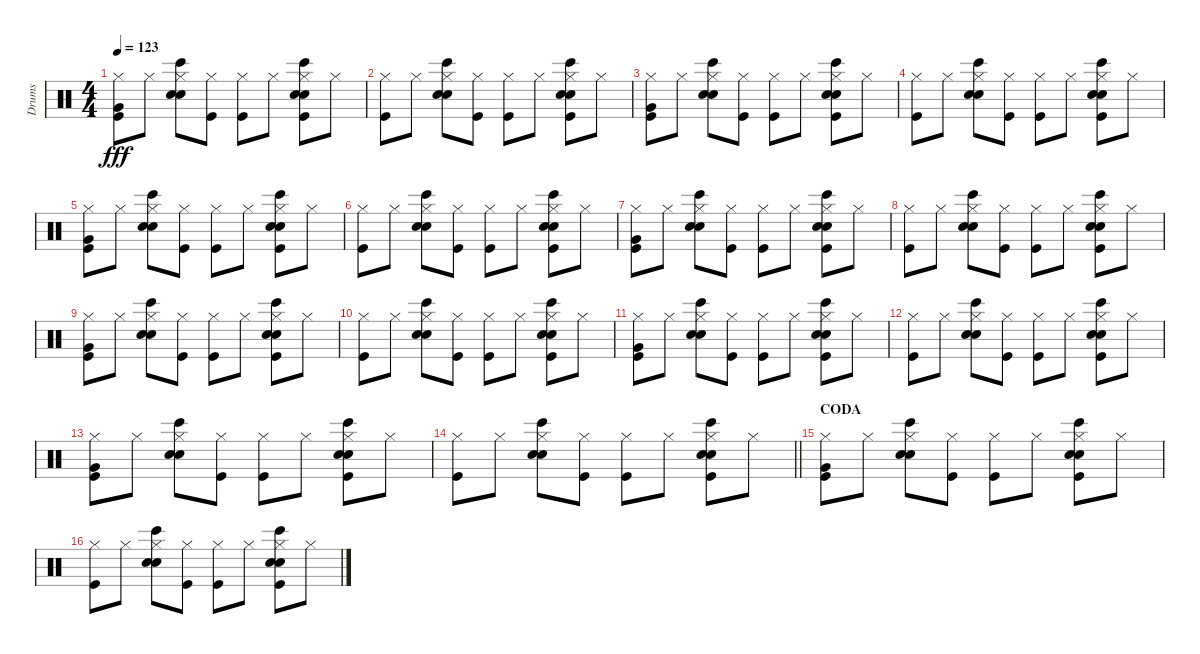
\track ("Drums" "Drums") {instrument percussion}
\staff {score}
\articulation defaults
\ts (4 4)
\tempo 123
\clef neutral
\ks c
("Kick (hit)" "Hi-Hat (closed)" "Very Low Tom (hit)").8{dy fff} "Hi-Hat (closed)".8 ("Hi-Hat (closed)" "Bongo High (hit)" "Hand Clap (hit)" "Electric Snare (hit)").8 ("Kick (hit)" "Hi-Hat (closed)").8 ("Hi-Hat (closed)" "Kick (hit)").8 "Hi-Hat (closed)".8 ("Hi-Hat (closed)" "Kick (hit)" "Electric Snare (hit)" "Hand Clap (hit)" "Bongo High (hit)").8 "Hi-Hat (closed)".8 |
("Hi-Hat (closed)" "Kick (hit)").8 "Hi-Hat (closed)".8 ("Hi-Hat (closed)" "Electric Snare (hit)" "Bongo High (hit)" "Hand Clap (hit)").8 ("Hi-Hat (closed)" "Kick (hit)").8 ("Hi-Hat (closed)" "Kick (hit)").8 "Hi-Hat (closed)".8 ("Hi-Hat (closed)" "Kick (hit)" "Electric Snare (hit)" "Bongo High (hit)" "Hand Clap (hit)").8 "Hi-Hat (closed)".8 |
("Kick (hit)" "Hi-Hat (closed)" "Very Low Tom (hit)").8 "Hi-Hat (closed)".8 ("Hi-Hat (closed)" "Bongo High (hit)" "Hand Clap (hit)" "Electric Snare (hit)").8 ("Kick (hit)" "Hi-Hat (closed)").8 ("Hi-Hat (closed)" "Kick (hit)").8 "Hi-Hat (closed)".8 ("Hi-Hat (closed)" "Kick (hit)" "Electric Snare (hit)" "Hand Clap (hit)" "Bongo High (hit)").8 "Hi-Hat (closed)".8 |
("Hi-Hat (closed)" "Kick (hit)").8 "Hi-Hat (closed)".8 ("Hi-Hat (closed)" "Electric Snare (hit)" "Bongo High (hit)" "Hand Clap (hit)").8 ("Hi-Hat (closed)" "Kick (hit)").8 ("Hi-Hat (closed)" "Kick (hit)").8 "Hi-Hat (closed)".8 ("Hi-Hat (closed)" "Kick (hit)" "Electric Snare (hit)" "Bongo High (hit)" "Hand Clap (hit)").8 "Hi-Hat (closed)".8 |
("Kick (hit)" "Hi-Hat (closed)" "Very Low Tom (hit)").8 "Hi-Hat (closed)".8 ("Hi-Hat (closed)" "Bongo High (hit)" "Hand Clap (hit)" "Electric Snare (hit)").8 ("Kick (hit)" "Hi-Hat (closed)").8 ("Hi-Hat (closed)" "Kick (hit)").8 "Hi-Hat (closed)".8 ("Hi-Hat (closed)" "Kick (hit)" "Electric Snare (hit)" "Hand Clap (hit)" "Bongo High (hit)").8 "Hi-Hat (closed)".8 |
("Hi-Hat (closed)" "Kick (hit)").8 "Hi-Hat (closed)".8 ("Hi-Hat (closed)" "Electric Snare (hit)" "Bongo High (hit)" "Hand Clap (hit)").8 ("Hi-Hat (closed)" "Kick (hit)").8 ("Hi-Hat (closed)" "Kick (hit)").8 "Hi-Hat (closed)".8 ("Hi-Hat (closed)" "Kick (hit)" "Electric Snare (hit)" "Bongo High (hit)" "Hand Clap (hit)").8 "Hi-Hat (closed)".8 |
("Kick (hit)" "Hi-Hat (closed)" "Very Low Tom (hit)").8 "Hi-Hat (closed)".8 ("Hi-Hat (closed)" "Bongo High (hit)" "Hand Clap (hit)" "Electric Snare (hit)").8 ("Kick (hit)" "Hi-Hat (closed)").8 ("Hi-Hat (closed)" "Kick (hit)").8 "Hi-Hat (closed)".8 ("Hi-Hat (closed)" "Kick (hit)" "Electric Snare (hit)" "Hand Clap (hit)" "Bongo High (hit)").8 "Hi-Hat (closed)".8 |
("Hi-Hat (closed)" "Kick (hit)").8 "Hi-Hat (closed)".8 ("Hi-Hat (closed)" "Electric Snare (hit)" "Bongo High (hit)" "Hand Clap (hit)").8 ("Hi-Hat (closed)" "Kick (hit)").8 ("Hi-Hat (closed)" "Kick (hit)").8 "Hi-Hat (closed)".8 ("Hi-Hat (closed)" "Kick (hit)" "Electric Snare (hit)" "Bongo High (hit)" "Hand Clap (hit)").8 "Hi-Hat (closed)".8 |
("Kick (hit)" "Hi-Hat (closed)" "Very Low Tom (hit)").8 "Hi-Hat (closed)".8 ("Hi-Hat (closed)" "Bongo High (hit)" "Hand Clap (hit)" "Electric Snare (hit)").8 ("Kick (hit)" "Hi-Hat (closed)").8 ("Hi-Hat (closed)" "Kick (hit)").8 "Hi-Hat (closed)".8 ("Hi-Hat (closed)" "Kick (hit)" "Electric Snare (hit)" "Hand Clap (hit)" "Bongo High (hit)").8 "Hi-Hat (closed)".8 |
("Hi-Hat (closed)" "Kick (hit)").8 "Hi-Hat (closed)".8 ("Hi-Hat (closed)" "Electric Snare (hit)" "Bongo High (hit)" "Hand Clap (hit)").8 ("Hi-Hat (closed)" "Kick (hit)").8 ("Hi-Hat (closed)" "Kick (hit)").8 "Hi-Hat (closed)".8 ("Hi-Hat (closed)" "Kick (hit)" "Electric Snare (hit)" "Bongo High (hit)" "Hand Clap (hit)").8 "Hi-Hat (closed)".8 |
("Kick (hit)" "Hi-Hat (closed)" "Very Low Tom (hit)").8 "Hi-Hat (closed)".8 ("Hi-Hat (closed)" "Bongo High (hit)" "Hand Clap (hit)" "Electric Snare (hit)").8 ("Kick (hit)" "Hi-Hat (closed)").8 ("Hi-Hat (closed)" "Kick (hit)").8 "Hi-Hat (closed)".8 ("Hi-Hat (closed)" "Kick (hit)" "Electric Snare (hit)" "Hand Clap (hit)" "Bongo High (hit)").8 "Hi-Hat (closed)".8 |
("Hi-Hat (closed)" "Kick (hit)").8 "Hi-Hat (closed)".8 ("Hi-Hat (closed)" "Electric Snare (hit)" "Bongo High (hit)" "Hand Clap (hit)").8 ("Hi-Hat (closed)" "Kick (hit)").8 ("Hi-Hat (closed)" "Kick (hit)").8 "Hi-Hat (closed)".8 ("Hi-Hat (closed)" "Kick (hit)" "Electric Snare (hit)" "Bongo High (hit)" "Hand Clap (hit)").8 "Hi-Hat (closed)".8 |
("Kick (hit)" "Hi-Hat (closed)" "Very Low Tom (hit)").8 "Hi-Hat (closed)".8 ("Hi-Hat (closed)" "Bongo High (hit)" "Hand Clap (hit)" "Electric Snare (hit)").8 ("Kick (hit)" "Hi-Hat (closed)").8 ("Hi-Hat (closed)" "Kick (hit)").8 "Hi-Hat (closed)".8 ("Hi-Hat (closed)" "Kick (hit)" "Electric Snare (hit)" "Hand Clap (hit)" "Bongo High (hit)").8 "Hi-Hat (closed)".8 |
\barLineRight lightlight
("Hi-Hat (closed)" "Kick (hit)").8 "Hi-Hat (closed)".8 ("Hi-Hat (closed)" "Electric Snare (hit)" "Bongo High (hit)" "Hand Clap (hit)").8 ("Hi-Hat (closed)" "Kick (hit)").8 ("Hi-Hat (closed)" "Kick (hit)").8 "Hi-Hat (closed)".8 ("Hi-Hat (closed)" "Kick (hit)" "Electric Snare (hit)" "Bongo High (hit)" "Hand Clap (hit)").8 "Hi-Hat (closed)".8 |
\section ("" "CODA")
("Kick (hit)" "Hi-Hat (closed)" "Very Low Tom (hit)").8 "Hi-Hat (closed)".8 ("Hi-Hat (closed)" "Bongo High (hit)" "Hand Clap (hit)" "Electric Snare (hit)").8 ("Kick (hit)" "Hi-Hat (closed)").8 ("Hi-Hat (closed)" "Kick (hit)").8 "Hi-Hat (closed)".8 ("Hi-Hat (closed)" "Kick (hit)" "Electric Snare (hit)" "Hand Clap (hit)" "Bongo High (hit)").8 "Hi-Hat (closed)".8 |
("Hi-Hat (closed)" "Kick (hit)").8 "Hi-Hat (closed)".8 ("Hi-Hat (closed)" "Electric Snare (hit)" "Bongo High (hit)" "Hand Clap (hit)").8 ("Hi-Hat (closed)" "Kick (hit)").8 ("Hi-Hat (closed)" "Kick (hit)").8 "Hi-Hat (closed)".8 ("Hi-Hat (closed)" "Kick (hit)" "Electric Snare (hit)" "Bongo High (hit)" "Hand Clap (hit)").8 "Hi-Hat (closed)".8
